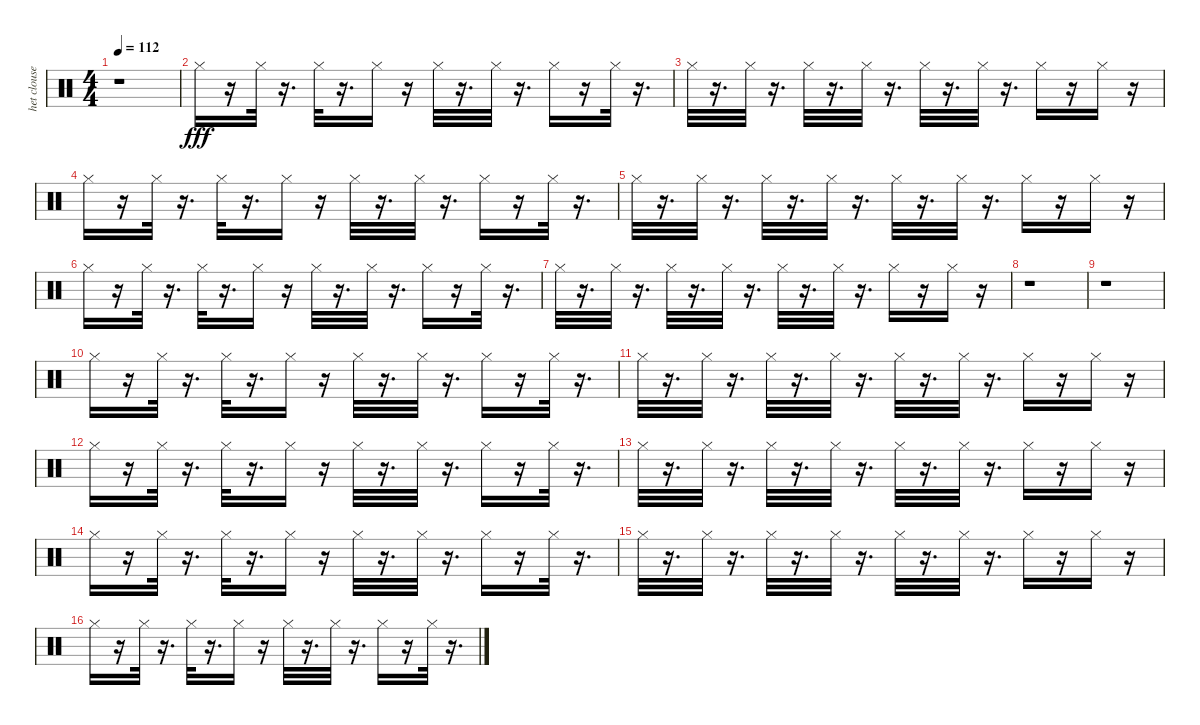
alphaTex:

\track ("het cloused" "het clouse") {instrument percussion}
\staff {score}
\articulation defaults
\ts (4 4)
\tempo 112
\clef neutral
\ks c
r.1{dy fff} |
"Hi-Hat (closed)".16 r.16 "Hi-Hat (closed)".32 r.16{d} "Hi-Hat (closed)".32 r.16{d} "Hi-Hat (closed)".16 r.16 "Hi-Hat (closed)".32 r.16{d} "Hi-Hat (closed)".32 r.16{d} "Hi-Hat (closed)".16 r.16 "Hi-Hat (closed)".32 r.16{d} |
"Hi-Hat (closed)".32 r.16{d} "Hi-Hat (closed)".32 r.16{d} "Hi-Hat (closed)".32 r.16{d} "Hi-Hat (closed)".32 r.16{d} "Hi-Hat (closed)".32 r.16{d} "Hi-Hat (closed)".32 r.16{d} "Hi-Hat (closed)".16 r.16 "Hi-Hat (closed)".16 r.16 |
"Hi-Hat (closed)".16 r.16 "Hi-Hat (closed)".32 r.16{d} "Hi-Hat (closed)".32 r.16{d} "Hi-Hat (closed)".16 r.16 "Hi-Hat (closed)".32 r.16{d} "Hi-Hat (closed)".32 r.16{d} "Hi-Hat (closed)".16 r.16 "Hi-Hat (closed)".32 r.16{d} |
"Hi-Hat (closed)".32 r.16{d} "Hi-Hat (closed)".32 r.16{d} "Hi-Hat (closed)".32 r.16{d} "Hi-Hat (closed)".32 r.16{d} "Hi-Hat (closed)".32 r.16{d} "Hi-Hat (closed)".32 r.16{d} "Hi-Hat (closed)".16 r.16 "Hi-Hat (closed)".16 r.16 |
"Hi-Hat (closed)".16 r.16 "Hi-Hat (closed)".32 r.16{d} "Hi-Hat (closed)".32 r.16{d} "Hi-Hat (closed)".16 r.16 "Hi-Hat (closed)".32 r.16{d} "Hi-Hat (closed)".32 r.16{d} "Hi-Hat (closed)".16 r.16 "Hi-Hat (closed)".32 r.16{d} |
"Hi-Hat (closed)".32 r.16{d} "Hi-Hat (closed)".32 r.16{d} "Hi-Hat (closed)".32 r.16{d} "Hi-Hat (closed)".32 r.16{d} "Hi-Hat (closed)".32 r.16{d} "Hi-Hat (closed)".32 r.16{d} "Hi-Hat (closed)".16 r.16 "Hi-Hat (closed)".16 r.16 |
r.1 |
r.1 |
"Hi-Hat (closed)".16 r.16 "Hi-Hat (closed)".32 r.16{d} "Hi-Hat (closed)".32 r.16{d} "Hi-Hat (closed)".16 r.16 "Hi-Hat (closed)".32 r.16{d} "Hi-Hat (closed)".32 r.16{d} "Hi-Hat (closed)".16 r.16 "Hi-Hat (closed)".32 r.16{d} |
"Hi-Hat (closed)".32 r.16{d} "Hi-Hat (closed)".32 r.16{d} "Hi-Hat (closed)".32 r.16{d} "Hi-Hat (closed)".32 r.16{d} "Hi-Hat (closed)".32 r.16{d} "Hi-Hat (closed)".32 r.16{d} "Hi-Hat (closed)".16 r.16 "Hi-Hat (closed)".16 r.16 |
"Hi-Hat (closed)".16 r.16 "Hi-Hat (closed)".32 r.16{d} "Hi-Hat (closed)".32 r.16{d} "Hi-Hat (closed)".16 r.16 "Hi-Hat (closed)".32 r.16{d} "Hi-Hat (closed)".32 r.16{d} "Hi-Hat (closed)".16 r.16 "Hi-Hat (closed)".32 r.16{d} |
"Hi-Hat (closed)".32 r.16{d} "Hi-Hat (closed)".32 r.16{d} "Hi-Hat (closed)".32 r.16{d} "Hi-Hat (closed)".32 r.16{d} "Hi-Hat (closed)".32 r.16{d} "Hi-Hat (closed)".32 r.16{d} "Hi-Hat (closed)".16 r.16 "Hi-Hat (closed)".16 r.16 |
"Hi-Hat (closed)".16 r.16 "Hi-Hat (closed)".32 r.16{d} "Hi-Hat (closed)".32 r.16{d} "Hi-Hat (closed)".16 r.16 "Hi-Hat (closed)".32 r.16{d} "Hi-Hat (closed)".32 r.16{d} "Hi-Hat (closed)".16 r.16 "Hi-Hat (closed)".32 r.16{d} |
"Hi-Hat (closed)".32 r.16{d} "Hi-Hat (closed)".32 r.16{d} "Hi-Hat (closed)".32 r.16{d} "Hi-Hat (closed)".32 r.16{d} "Hi-Hat (closed)".32 r.16{d} "Hi-Hat (closed)".32 r.16{d} "Hi-Hat (closed)".16 r.16 "Hi-Hat (closed)".16 r.16 |
"Hi-Hat (closed)".16 r.16 "Hi-Hat (closed)".32 r.16{d} "Hi-Hat (closed)".32 r.16{d} "Hi-Hat (closed)".16 r.16 "Hi-Hat (closed)".32 r.16{d} "Hi-Hat (closed)".32 r.16{d} "Hi-Hat (closed)".16 r.16 "Hi-Hat (closed)".32 r.16{d}
